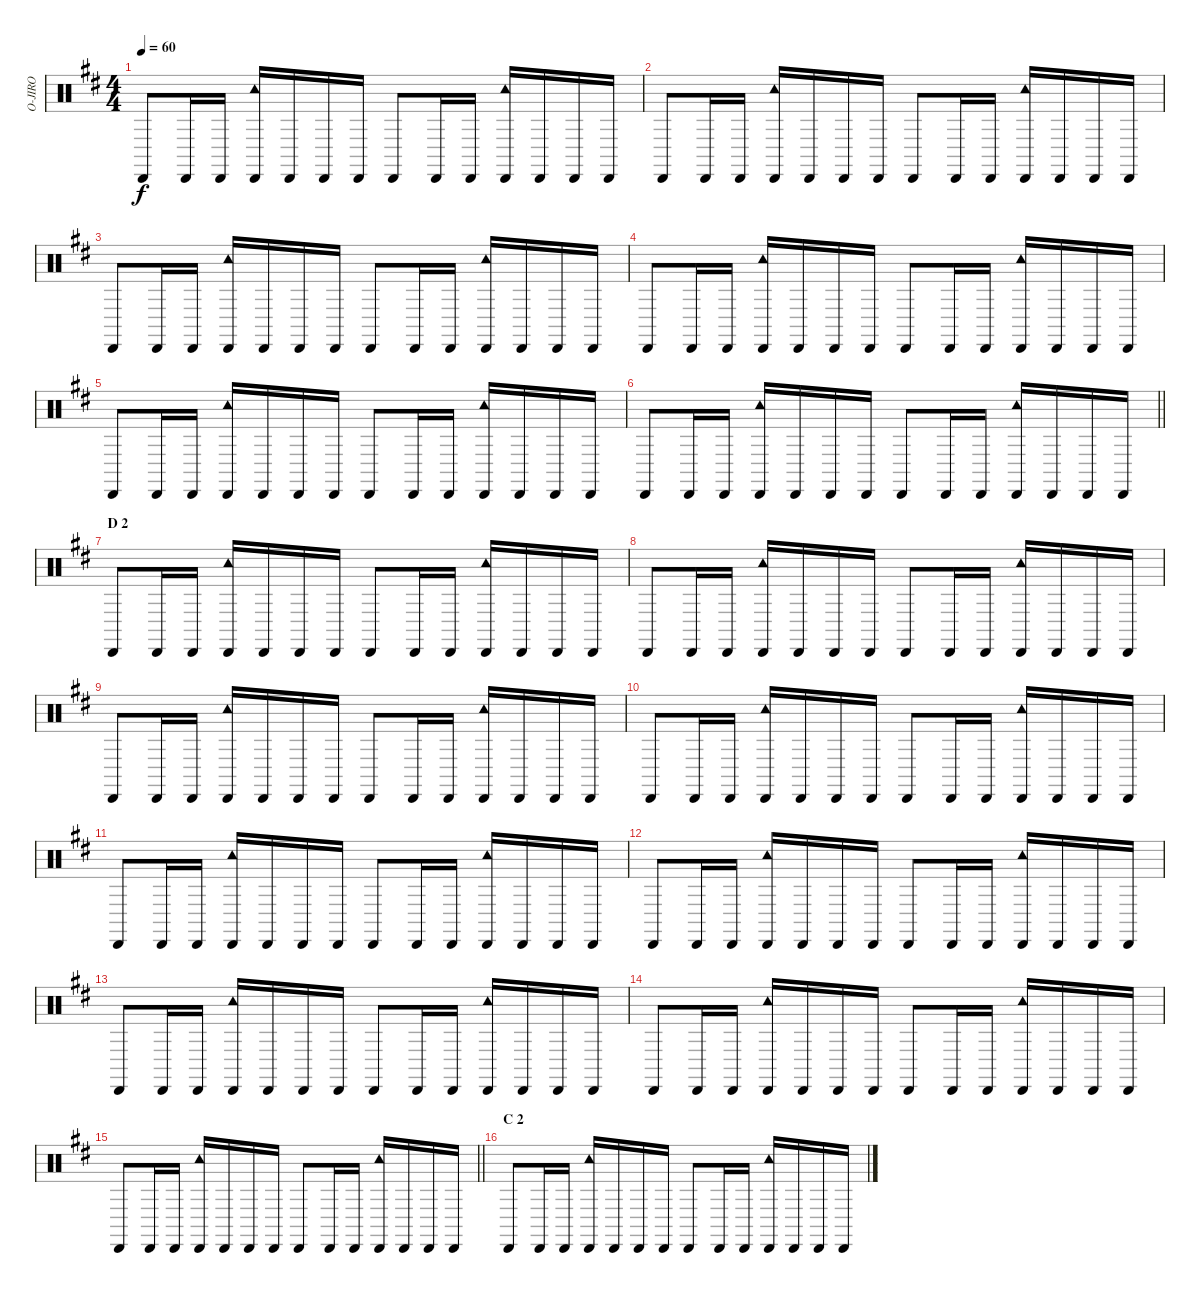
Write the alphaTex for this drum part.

\track ("O-JIRO" "O-JIRO") {instrument percussion}
\staff {score}
\articulation defaults
\ts (4 4)
\tempo 60
\clef neutral
\ks d "Cabasa (hit)".8{dy f} "Cabasa (hit)".16 "Cabasa (hit)".16
("Cabasa (hit)" "Tambourine (hit)").16 "Cabasa (hit)".16 "Cabasa (hit)".16 "Cabasa (hit)".16 "Cabasa (hit)".8 "Cabasa (hit)".16 "Cabasa (hit)".16 ("Cabasa (hit)" "Tambourine (hit)").16 "Cabasa (hit)".16 "Cabasa (hit)".16 "Cabasa (hit)".16 |
"Cabasa (hit)".8 "Cabasa (hit)".16 "Cabasa (hit)".16 ("Cabasa (hit)" "Tambourine (hit)").16 "Cabasa (hit)".16 "Cabasa (hit)".16 "Cabasa (hit)".16 "Cabasa (hit)".8 "Cabasa (hit)".16 "Cabasa (hit)".16 ("Cabasa (hit)" "Tambourine (hit)").16 "Cabasa (hit)".16 "Cabasa (hit)".16 "Cabasa (hit)".16 |
"Cabasa (hit)".8 "Cabasa (hit)".16 "Cabasa (hit)".16 ("Cabasa (hit)" "Tambourine (hit)").16 "Cabasa (hit)".16 "Cabasa (hit)".16 "Cabasa (hit)".16 "Cabasa (hit)".8 "Cabasa (hit)".16 "Cabasa (hit)".16 ("Cabasa (hit)" "Tambourine (hit)").16 "Cabasa (hit)".16 "Cabasa (hit)".16 "Cabasa (hit)".16 |
"Cabasa (hit)".8 "Cabasa (hit)".16 "Cabasa (hit)".16 ("Cabasa (hit)" "Tambourine (hit)").16 "Cabasa (hit)".16 "Cabasa (hit)".16 "Cabasa (hit)".16 "Cabasa (hit)".8 "Cabasa (hit)".16 "Cabasa (hit)".16 ("Cabasa (hit)" "Tambourine (hit)").16 "Cabasa (hit)".16 "Cabasa (hit)".16 "Cabasa (hit)".16 |
"Cabasa (hit)".8 "Cabasa (hit)".16 "Cabasa (hit)".16 ("Cabasa (hit)" "Tambourine (hit)").16 "Cabasa (hit)".16 "Cabasa (hit)".16 "Cabasa (hit)".16 "Cabasa (hit)".8 "Cabasa (hit)".16 "Cabasa (hit)".16 ("Cabasa (hit)" "Tambourine (hit)").16 "Cabasa (hit)".16 "Cabasa (hit)".16 "Cabasa (hit)".16 |
\barLineRight lightlight "Cabasa (hit)".8 "Cabasa (hit)".16 "Cabasa (hit)".16
("Cabasa (hit)" "Tambourine (hit)").16 "Cabasa (hit)".16 "Cabasa (hit)".16 "Cabasa (hit)".16 "Cabasa (hit)".8 "Cabasa (hit)".16 "Cabasa (hit)".16 ("Cabasa (hit)" "Tambourine (hit)").16 "Cabasa (hit)".16 "Cabasa (hit)".16 "Cabasa (hit)".16 |
\section ("" "D 2")
"Cabasa (hit)".8 "Cabasa (hit)".16 "Cabasa (hit)".16 ("Cabasa (hit)" "Tambourine (hit)").16 "Cabasa (hit)".16 "Cabasa (hit)".16 "Cabasa (hit)".16 "Cabasa (hit)".8 "Cabasa (hit)".16 "Cabasa (hit)".16 ("Cabasa (hit)" "Tambourine (hit)").16 "Cabasa (hit)".16 "Cabasa (hit)".16 "Cabasa (hit)".16 |
"Cabasa (hit)".8 "Cabasa (hit)".16 "Cabasa (hit)".16 ("Cabasa (hit)" "Tambourine (hit)").16 "Cabasa (hit)".16 "Cabasa (hit)".16 "Cabasa (hit)".16 "Cabasa (hit)".8 "Cabasa (hit)".16 "Cabasa (hit)".16 ("Cabasa (hit)" "Tambourine (hit)").16 "Cabasa (hit)".16 "Cabasa (hit)".16 "Cabasa (hit)".16 |
"Cabasa (hit)".8 "Cabasa (hit)".16 "Cabasa (hit)".16 ("Cabasa (hit)" "Tambourine (hit)").16 "Cabasa (hit)".16 "Cabasa (hit)".16 "Cabasa (hit)".16 "Cabasa (hit)".8 "Cabasa (hit)".16 "Cabasa (hit)".16 ("Cabasa (hit)" "Tambourine (hit)").16 "Cabasa (hit)".16 "Cabasa (hit)".16 "Cabasa (hit)".16 |
"Cabasa (hit)".8 "Cabasa (hit)".16 "Cabasa (hit)".16 ("Cabasa (hit)" "Tambourine (hit)").16 "Cabasa (hit)".16 "Cabasa (hit)".16 "Cabasa (hit)".16 "Cabasa (hit)".8 "Cabasa (hit)".16 "Cabasa (hit)".16 ("Cabasa (hit)" "Tambourine (hit)").16 "Cabasa (hit)".16 "Cabasa (hit)".16 "Cabasa (hit)".16 |
"Cabasa (hit)".8 "Cabasa (hit)".16 "Cabasa (hit)".16 ("Cabasa (hit)" "Tambourine (hit)").16 "Cabasa (hit)".16 "Cabasa (hit)".16 "Cabasa (hit)".16 "Cabasa (hit)".8 "Cabasa (hit)".16 "Cabasa (hit)".16 ("Cabasa (hit)" "Tambourine (hit)").16 "Cabasa (hit)".16 "Cabasa (hit)".16 "Cabasa (hit)".16 |
"Cabasa (hit)".8 "Cabasa (hit)".16 "Cabasa (hit)".16 ("Cabasa (hit)" "Tambourine (hit)").16 "Cabasa (hit)".16 "Cabasa (hit)".16 "Cabasa (hit)".16 "Cabasa (hit)".8 "Cabasa (hit)".16 "Cabasa (hit)".16 ("Cabasa (hit)" "Tambourine (hit)").16 "Cabasa (hit)".16 "Cabasa (hit)".16 "Cabasa (hit)".16 |
"Cabasa (hit)".8 "Cabasa (hit)".16 "Cabasa (hit)".16 ("Cabasa (hit)" "Tambourine (hit)").16 "Cabasa (hit)".16 "Cabasa (hit)".16 "Cabasa (hit)".16 "Cabasa (hit)".8 "Cabasa (hit)".16 "Cabasa (hit)".16 ("Cabasa (hit)" "Tambourine (hit)").16 "Cabasa (hit)".16 "Cabasa (hit)".16 "Cabasa (hit)".16 |
"Cabasa (hit)".8 "Cabasa (hit)".16 "Cabasa (hit)".16 ("Cabasa (hit)" "Tambourine (hit)").16 "Cabasa (hit)".16 "Cabasa (hit)".16 "Cabasa (hit)".16 "Cabasa (hit)".8 "Cabasa (hit)".16 "Cabasa (hit)".16 ("Cabasa (hit)" "Tambourine (hit)").16 "Cabasa (hit)".16 "Cabasa (hit)".16 "Cabasa (hit)".16 |
\barLineRight lightlight "Cabasa (hit)".8 "Cabasa (hit)".16 "Cabasa (hit)".16
("Cabasa (hit)" "Tambourine (hit)").16 "Cabasa (hit)".16 "Cabasa (hit)".16 "Cabasa (hit)".16 "Cabasa (hit)".8 "Cabasa (hit)".16 "Cabasa (hit)".16 ("Cabasa (hit)" "Tambourine (hit)").16 "Cabasa (hit)".16 "Cabasa (hit)".16 "Cabasa (hit)".16 |
\section ("" "C 2")
"Cabasa (hit)".8 "Cabasa (hit)".16 "Cabasa (hit)".16 ("Cabasa (hit)" "Tambourine (hit)").16 "Cabasa (hit)".16 "Cabasa (hit)".16 "Cabasa (hit)".16 "Cabasa (hit)".8 "Cabasa (hit)".16 "Cabasa (hit)".16 ("Cabasa (hit)" "Tambourine (hit)").16 "Cabasa (hit)".16 "Cabasa (hit)".16 "Cabasa (hit)".16
